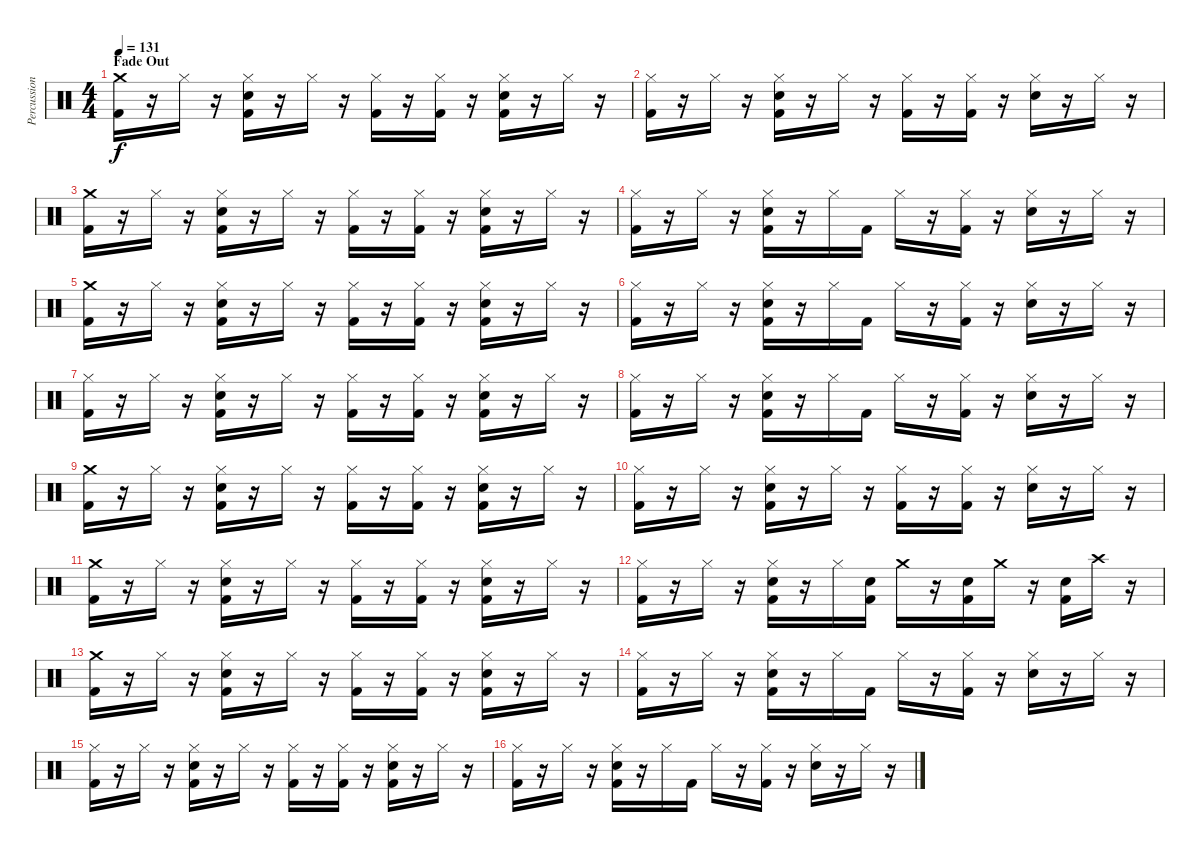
\track ("Percussion" "Percussion") {instrument percussion}
\staff {score}
\articulation defaults
\ts (4 4)
\section ("" "Fade Out")
\tempo 131
\clef neutral
\ks c
("Crash medium (hit)" "Kick (hit) 2").16{dy f} r.16 "Hi-Hat (closed)".16 r.16 ("Hi-Hat (closed)" "Electric Snare (hit)" "Kick (hit) 2").16 r.16 "Hi-Hat (closed)".16 r.16 ("Hi-Hat (closed)" "Kick (hit) 2").16 r.16 ("Hi-Hat (closed)" "Kick (hit) 2").16 r.16 ("Hi-Hat (closed)" "Electric Snare (hit)" "Kick (hit) 2").16 r.16 "Hi-Hat (closed)".16 r.16 |
("Hi-Hat (closed)" "Kick (hit) 2").16 r.16 "Hi-Hat (closed)".16 r.16 ("Hi-Hat (closed)" "Electric Snare (hit)" "Kick (hit) 2").16 r.16 "Hi-Hat (closed)".16 r.16 ("Hi-Hat (closed)" "Kick (hit) 2").16 r.16 ("Hi-Hat (closed)" "Kick (hit) 2").16 r.16 ("Hi-Hat (closed)" "Electric Snare (hit)").16 r.16 "Hi-Hat (closed)".16 r.16 |
("Crash medium (hit)" "Kick (hit) 2").16 r.16 "Hi-Hat (closed)".16 r.16 ("Hi-Hat (closed)" "Electric Snare (hit)" "Kick (hit) 2").16 r.16 "Hi-Hat (closed)".16 r.16 ("Hi-Hat (closed)" "Kick (hit) 2").16 r.16 ("Hi-Hat (closed)" "Kick (hit) 2").16 r.16 ("Hi-Hat (closed)" "Electric Snare (hit)" "Kick (hit) 2").16 r.16 "Hi-Hat (closed)".16 r.16 |
("Hi-Hat (closed)" "Kick (hit) 2").16 r.16 "Hi-Hat (closed)".16 r.16 ("Hi-Hat (closed)" "Electric Snare (hit)" "Kick (hit) 2").16 r.16 "Hi-Hat (closed)".16 "Kick (hit) 2".16 "Hi-Hat (closed)".16 r.16 ("Hi-Hat (closed)" "Kick (hit) 2").16 r.16 ("Hi-Hat (closed)" "Electric Snare (hit)").16 r.16 "Hi-Hat (closed)".16 r.16 |
("Crash medium (hit)" "Kick (hit) 2").16 r.16 "Hi-Hat (closed)".16 r.16 ("Hi-Hat (closed)" "Electric Snare (hit)" "Kick (hit) 2").16 r.16 "Hi-Hat (closed)".16 r.16 ("Hi-Hat (closed)" "Kick (hit) 2").16 r.16 ("Hi-Hat (closed)" "Kick (hit) 2").16 r.16 ("Hi-Hat (closed)" "Electric Snare (hit)" "Kick (hit) 2").16 r.16 "Hi-Hat (closed)".16 r.16 |
("Hi-Hat (closed)" "Kick (hit) 2").16 r.16 "Hi-Hat (closed)".16 r.16 ("Hi-Hat (closed)" "Electric Snare (hit)" "Kick (hit) 2").16 r.16 "Hi-Hat (closed)".16 "Kick (hit) 2".16 "Hi-Hat (closed)".16 r.16 ("Hi-Hat (closed)" "Kick (hit) 2").16 r.16 ("Hi-Hat (closed)" "Electric Snare (hit)").16 r.16 "Hi-Hat (closed)".16 r.16 |
("Hi-Hat (closed)" "Kick (hit) 2").16 r.16 "Hi-Hat (closed)".16 r.16 ("Hi-Hat (closed)" "Electric Snare (hit)" "Kick (hit) 2").16 r.16 "Hi-Hat (closed)".16 r.16 ("Hi-Hat (closed)" "Kick (hit) 2").16 r.16 ("Hi-Hat (closed)" "Kick (hit) 2").16 r.16 ("Hi-Hat (closed)" "Electric Snare (hit)" "Kick (hit) 2").16 r.16 "Hi-Hat (closed)".16 r.16 |
("Hi-Hat (closed)" "Kick (hit) 2").16 r.16 "Hi-Hat (closed)".16 r.16 ("Hi-Hat (closed)" "Electric Snare (hit)" "Kick (hit) 2").16 r.16 "Hi-Hat (closed)".16 "Kick (hit) 2".16 "Hi-Hat (closed)".16 r.16 ("Hi-Hat (closed)" "Kick (hit) 2").16 r.16 ("Hi-Hat (closed)" "Electric Snare (hit)").16 r.16 "Hi-Hat (closed)".16 r.16 |
("Crash medium (hit)" "Kick (hit) 2").16 r.16 "Hi-Hat (closed)".16 r.16 ("Hi-Hat (closed)" "Electric Snare (hit)" "Kick (hit) 2").16 r.16 "Hi-Hat (closed)".16 r.16 ("Hi-Hat (closed)" "Kick (hit) 2").16 r.16 ("Hi-Hat (closed)" "Kick (hit) 2").16 r.16 ("Hi-Hat (closed)" "Electric Snare (hit)" "Kick (hit) 2").16 r.16 "Hi-Hat (closed)".16 r.16 |
("Hi-Hat (closed)" "Kick (hit) 2").16 r.16 "Hi-Hat (closed)".16 r.16 ("Hi-Hat (closed)" "Electric Snare (hit)" "Kick (hit) 2").16 r.16 "Hi-Hat (closed)".16 r.16 ("Hi-Hat (closed)" "Kick (hit) 2").16 r.16 ("Hi-Hat (closed)" "Kick (hit) 2").16 r.16 ("Hi-Hat (closed)" "Electric Snare (hit)").16 r.16 "Hi-Hat (closed)".16 r.16 |
("Crash medium (hit)" "Kick (hit) 2").16 r.16 "Hi-Hat (closed)".16 r.16 ("Hi-Hat (closed)" "Electric Snare (hit)" "Kick (hit) 2").16 r.16 "Hi-Hat (closed)".16 r.16 ("Hi-Hat (closed)" "Kick (hit) 2").16 r.16 ("Hi-Hat (closed)" "Kick (hit) 2").16 r.16 ("Hi-Hat (closed)" "Electric Snare (hit)" "Kick (hit) 2").16 r.16 "Hi-Hat (closed)".16 r.16 |
("Hi-Hat (closed)" "Kick (hit) 2").16 r.16 "Hi-Hat (closed)".16 r.16 ("Hi-Hat (closed)" "Electric Snare (hit)" "Kick (hit) 2").16 r.16 "Hi-Hat (closed)".16 ("Electric Snare (hit)" "Kick (hit) 2").16 "Crash medium (hit)".16 r.16 ("Electric Snare (hit)" "Kick (hit) 2").16 "Crash medium (hit)".16 r.16 ("Electric Snare (hit)" "Kick (hit) 2").16 "Crash high (hit)".16 r.16 |
("Crash medium (hit)" "Kick (hit) 2").16{volume 5} r.16 "Hi-Hat (closed)".16 r.16 ("Hi-Hat (closed)" "Electric Snare (hit)" "Kick (hit) 2").16 r.16 "Hi-Hat (closed)".16 r.16 ("Hi-Hat (closed)" "Kick (hit) 2").16 r.16 ("Hi-Hat (closed)" "Kick (hit) 2").16 r.16 ("Hi-Hat (closed)" "Electric Snare (hit)" "Kick (hit) 2").16 r.16 "Hi-Hat (closed)".16 r.16 |
("Hi-Hat (closed)" "Kick (hit) 2").16 r.16 "Hi-Hat (closed)".16 r.16 ("Hi-Hat (closed)" "Electric Snare (hit)" "Kick (hit) 2").16 r.16 "Hi-Hat (closed)".16 "Kick (hit) 2".16 "Hi-Hat (closed)".16 r.16 ("Hi-Hat (closed)" "Kick (hit) 2").16 r.16 ("Hi-Hat (closed)" "Electric Snare (hit)").16 r.16 "Hi-Hat (closed)".16 r.16 |
("Hi-Hat (closed)" "Kick (hit) 2").16 r.16 "Hi-Hat (closed)".16 r.16 ("Hi-Hat (closed)" "Electric Snare (hit)" "Kick (hit) 2").16 r.16 "Hi-Hat (closed)".16 r.16 ("Hi-Hat (closed)" "Kick (hit) 2").16 r.16 ("Hi-Hat (closed)" "Kick (hit) 2").16 r.16 ("Hi-Hat (closed)" "Electric Snare (hit)" "Kick (hit) 2").16 r.16 "Hi-Hat (closed)".16 r.16 |
("Hi-Hat (closed)" "Kick (hit) 2").16 r.16 "Hi-Hat (closed)".16 r.16 ("Hi-Hat (closed)" "Electric Snare (hit)" "Kick (hit) 2").16 r.16 "Hi-Hat (closed)".16 "Kick (hit) 2".16 "Hi-Hat (closed)".16 r.16 ("Hi-Hat (closed)" "Kick (hit) 2").16 r.16 ("Hi-Hat (closed)" "Electric Snare (hit)").16 r.16 "Hi-Hat (closed)".16 r.16
